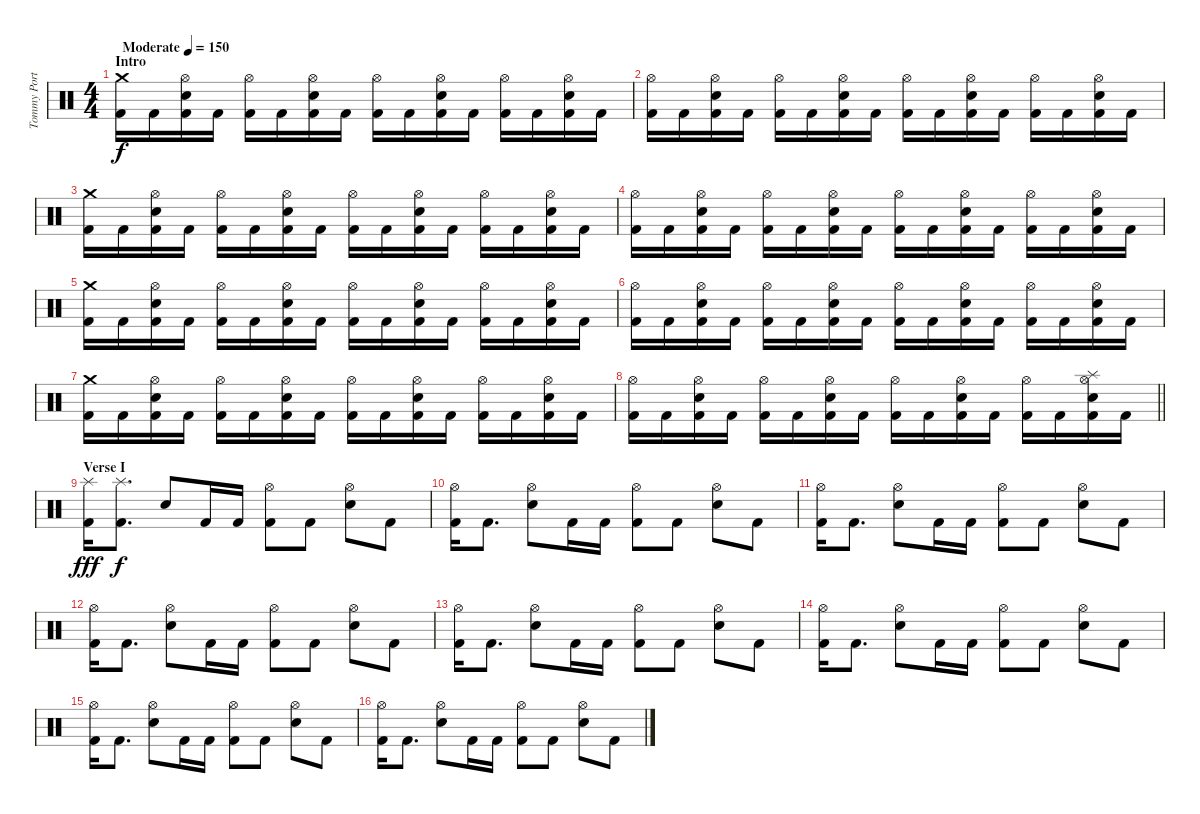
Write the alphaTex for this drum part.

\track ("Tommy Portimo" "Tommy Port") {instrument percussion}
\staff {score}
\articulation defaults
\ts (4 4)
\section ("" "Intro")
\tempo (150 "Moderate")
\clef neutral
\ks c
("Crash medium (hit)" "Kick (hit) 2").16{dy f} "Kick (hit) 2".16 ("Hi-Hat (open)" "Electric Snare (hit)" "Kick (hit) 2").16 "Kick (hit) 2".16 ("Hi-Hat (open)" "Kick (hit) 2").16 "Kick (hit) 2".16 ("Hi-Hat (open)" "Electric Snare (hit)" "Kick (hit) 2").16 "Kick (hit) 2".16 ("Hi-Hat (open)" "Kick (hit) 2").16 "Kick (hit) 2".16 ("Hi-Hat (open)" "Electric Snare (hit)" "Kick (hit) 2").16 "Kick (hit) 2".16 ("Hi-Hat (open)" "Kick (hit) 2").16 "Kick (hit) 2".16 ("Hi-Hat (open)" "Electric Snare (hit)" "Kick (hit) 2").16 "Kick (hit) 2".16 |
("Hi-Hat (open)" "Kick (hit) 2").16 "Kick (hit) 2".16 ("Hi-Hat (open)" "Electric Snare (hit)" "Kick (hit) 2").16 "Kick (hit) 2".16 ("Hi-Hat (open)" "Kick (hit) 2").16 "Kick (hit) 2".16 ("Hi-Hat (open)" "Electric Snare (hit)" "Kick (hit) 2").16 "Kick (hit) 2".16 ("Hi-Hat (open)" "Kick (hit) 2").16 "Kick (hit) 2".16 ("Hi-Hat (open)" "Electric Snare (hit)" "Kick (hit) 2").16 "Kick (hit) 2".16 ("Hi-Hat (open)" "Kick (hit) 2").16 "Kick (hit) 2".16 ("Hi-Hat (open)" "Electric Snare (hit)" "Kick (hit) 2").16 "Kick (hit) 2".16 |
("Crash medium (hit)" "Kick (hit) 2").16 "Kick (hit) 2".16 ("Hi-Hat (open)" "Electric Snare (hit)" "Kick (hit) 2").16 "Kick (hit) 2".16 ("Hi-Hat (open)" "Kick (hit) 2").16 "Kick (hit) 2".16 ("Hi-Hat (open)" "Electric Snare (hit)" "Kick (hit) 2").16 "Kick (hit) 2".16 ("Hi-Hat (open)" "Kick (hit) 2").16 "Kick (hit) 2".16 ("Hi-Hat (open)" "Electric Snare (hit)" "Kick (hit) 2").16 "Kick (hit) 2".16 ("Hi-Hat (open)" "Kick (hit) 2").16 "Kick (hit) 2".16 ("Hi-Hat (open)" "Electric Snare (hit)" "Kick (hit) 2").16 "Kick (hit) 2".16 |
("Hi-Hat (open)" "Kick (hit) 2").16 "Kick (hit) 2".16 ("Hi-Hat (open)" "Electric Snare (hit)" "Kick (hit) 2").16 "Kick (hit) 2".16 ("Hi-Hat (open)" "Kick (hit) 2").16 "Kick (hit) 2".16 ("Hi-Hat (open)" "Electric Snare (hit)" "Kick (hit) 2").16 "Kick (hit) 2".16 ("Hi-Hat (open)" "Kick (hit) 2").16 "Kick (hit) 2".16 ("Hi-Hat (open)" "Electric Snare (hit)" "Kick (hit) 2").16 "Kick (hit) 2".16 ("Hi-Hat (open)" "Kick (hit) 2").16 "Kick (hit) 2".16 ("Hi-Hat (open)" "Electric Snare (hit)" "Kick (hit) 2").16 "Kick (hit) 2".16 |
("Crash medium (hit)" "Kick (hit) 2").16 "Kick (hit) 2".16 ("Hi-Hat (open)" "Electric Snare (hit)" "Kick (hit) 2").16 "Kick (hit) 2".16 ("Hi-Hat (open)" "Kick (hit) 2").16 "Kick (hit) 2".16 ("Hi-Hat (open)" "Electric Snare (hit)" "Kick (hit) 2").16 "Kick (hit) 2".16 ("Hi-Hat (open)" "Kick (hit) 2").16 "Kick (hit) 2".16 ("Hi-Hat (open)" "Electric Snare (hit)" "Kick (hit) 2").16 "Kick (hit) 2".16 ("Hi-Hat (open)" "Kick (hit) 2").16 "Kick (hit) 2".16 ("Hi-Hat (open)" "Electric Snare (hit)" "Kick (hit) 2").16 "Kick (hit) 2".16 |
("Hi-Hat (open)" "Kick (hit) 2").16 "Kick (hit) 2".16 ("Hi-Hat (open)" "Electric Snare (hit)" "Kick (hit) 2").16 "Kick (hit) 2".16 ("Hi-Hat (open)" "Kick (hit) 2").16 "Kick (hit) 2".16 ("Hi-Hat (open)" "Electric Snare (hit)" "Kick (hit) 2").16 "Kick (hit) 2".16 ("Hi-Hat (open)" "Kick (hit) 2").16 "Kick (hit) 2".16 ("Hi-Hat (open)" "Electric Snare (hit)" "Kick (hit) 2").16 "Kick (hit) 2".16 ("Hi-Hat (open)" "Kick (hit) 2").16 "Kick (hit) 2".16 ("Hi-Hat (open)" "Electric Snare (hit)" "Kick (hit) 2").16 "Kick (hit) 2".16 |
("Crash medium (hit)" "Kick (hit) 2").16 "Kick (hit) 2".16 ("Hi-Hat (open)" "Electric Snare (hit)" "Kick (hit) 2").16 "Kick (hit) 2".16 ("Hi-Hat (open)" "Kick (hit) 2").16 "Kick (hit) 2".16 ("Hi-Hat (open)" "Electric Snare (hit)" "Kick (hit) 2").16 "Kick (hit) 2".16 ("Hi-Hat (open)" "Kick (hit) 2").16 "Kick (hit) 2".16 ("Hi-Hat (open)" "Electric Snare (hit)" "Kick (hit) 2").16 "Kick (hit) 2".16 ("Hi-Hat (open)" "Kick (hit) 2").16 "Kick (hit) 2".16 ("Hi-Hat (open)" "Electric Snare (hit)" "Kick (hit) 2").16 "Kick (hit) 2".16 |
\barLineRight lightlight
("Hi-Hat (open)" "Kick (hit) 2").16 "Kick (hit) 2".16 ("Hi-Hat (open)" "Electric Snare (hit)" "Kick (hit) 2").16 "Kick (hit) 2".16 ("Hi-Hat (open)" "Kick (hit) 2").16 "Kick (hit) 2".16 ("Hi-Hat (open)" "Electric Snare (hit)" "Kick (hit) 2").16 "Kick (hit) 2".16 ("Hi-Hat (open)" "Kick (hit) 2").16 "Kick (hit) 2".16 ("Hi-Hat (open)" "Electric Snare (hit)" "Kick (hit) 2").16 "Kick (hit) 2".16 ("Hi-Hat (open)" "Kick (hit) 2").16 "Kick (hit) 2".16 ("Splash (hit)" "Hi-Hat (open)" "Electric Snare (hit)" "Kick (hit) 2").16 "Kick (hit) 2".16 |
\section ("" "Verse I")
("Splash (hit)" "Kick (hit) 2").16{dy fff} ("Splash (hit)" "Kick (hit) 2").8{d dy f} "Electric Snare (hit)".8 "Kick (hit) 2".16 "Kick (hit) 2".16 ("Hi-Hat (open)" "Kick (hit) 2").8 "Kick (hit) 2".8 ("Hi-Hat (open)" "Electric Snare (hit)").8 "Kick (hit) 2".8 |
("Hi-Hat (open)" "Kick (hit) 2").16 "Kick (hit) 2".8{d} ("Hi-Hat (open)" "Electric Snare (hit)").8 "Kick (hit) 2".16 "Kick (hit) 2".16 ("Hi-Hat (open)" "Kick (hit) 2").8 "Kick (hit) 2".8 ("Hi-Hat (open)" "Electric Snare (hit)").8 "Kick (hit) 2".8 |
("Hi-Hat (open)" "Kick (hit) 2").16 "Kick (hit) 2".8{d} ("Hi-Hat (open)" "Electric Snare (hit)").8 "Kick (hit) 2".16 "Kick (hit) 2".16 ("Hi-Hat (open)" "Kick (hit) 2").8 "Kick (hit) 2".8 ("Hi-Hat (open)" "Electric Snare (hit)").8 "Kick (hit) 2".8 |
("Hi-Hat (open)" "Kick (hit) 2").16 "Kick (hit) 2".8{d} ("Hi-Hat (open)" "Electric Snare (hit)").8 "Kick (hit) 2".16 "Kick (hit) 2".16 ("Hi-Hat (open)" "Kick (hit) 2").8 "Kick (hit) 2".8 ("Hi-Hat (open)" "Electric Snare (hit)").8 "Kick (hit) 2".8 |
("Hi-Hat (open)" "Kick (hit) 2").16 "Kick (hit) 2".8{d} ("Hi-Hat (open)" "Electric Snare (hit)").8 "Kick (hit) 2".16 "Kick (hit) 2".16 ("Hi-Hat (open)" "Kick (hit) 2").8 "Kick (hit) 2".8 ("Hi-Hat (open)" "Electric Snare (hit)").8 "Kick (hit) 2".8 |
("Hi-Hat (open)" "Kick (hit) 2").16 "Kick (hit) 2".8{d} ("Hi-Hat (open)" "Electric Snare (hit)").8 "Kick (hit) 2".16 "Kick (hit) 2".16 ("Hi-Hat (open)" "Kick (hit) 2").8 "Kick (hit) 2".8 ("Hi-Hat (open)" "Electric Snare (hit)").8 "Kick (hit) 2".8 |
("Hi-Hat (open)" "Kick (hit) 2").16 "Kick (hit) 2".8{d} ("Hi-Hat (open)" "Electric Snare (hit)").8 "Kick (hit) 2".16 "Kick (hit) 2".16 ("Hi-Hat (open)" "Kick (hit) 2").8 "Kick (hit) 2".8 ("Hi-Hat (open)" "Electric Snare (hit)").8 "Kick (hit) 2".8 |
("Hi-Hat (open)" "Kick (hit) 2").16 "Kick (hit) 2".8{d} ("Hi-Hat (open)" "Electric Snare (hit)").8 "Kick (hit) 2".16 "Kick (hit) 2".16 ("Hi-Hat (open)" "Kick (hit) 2").8 "Kick (hit) 2".8 ("Hi-Hat (open)" "Electric Snare (hit)").8 "Kick (hit) 2".8
